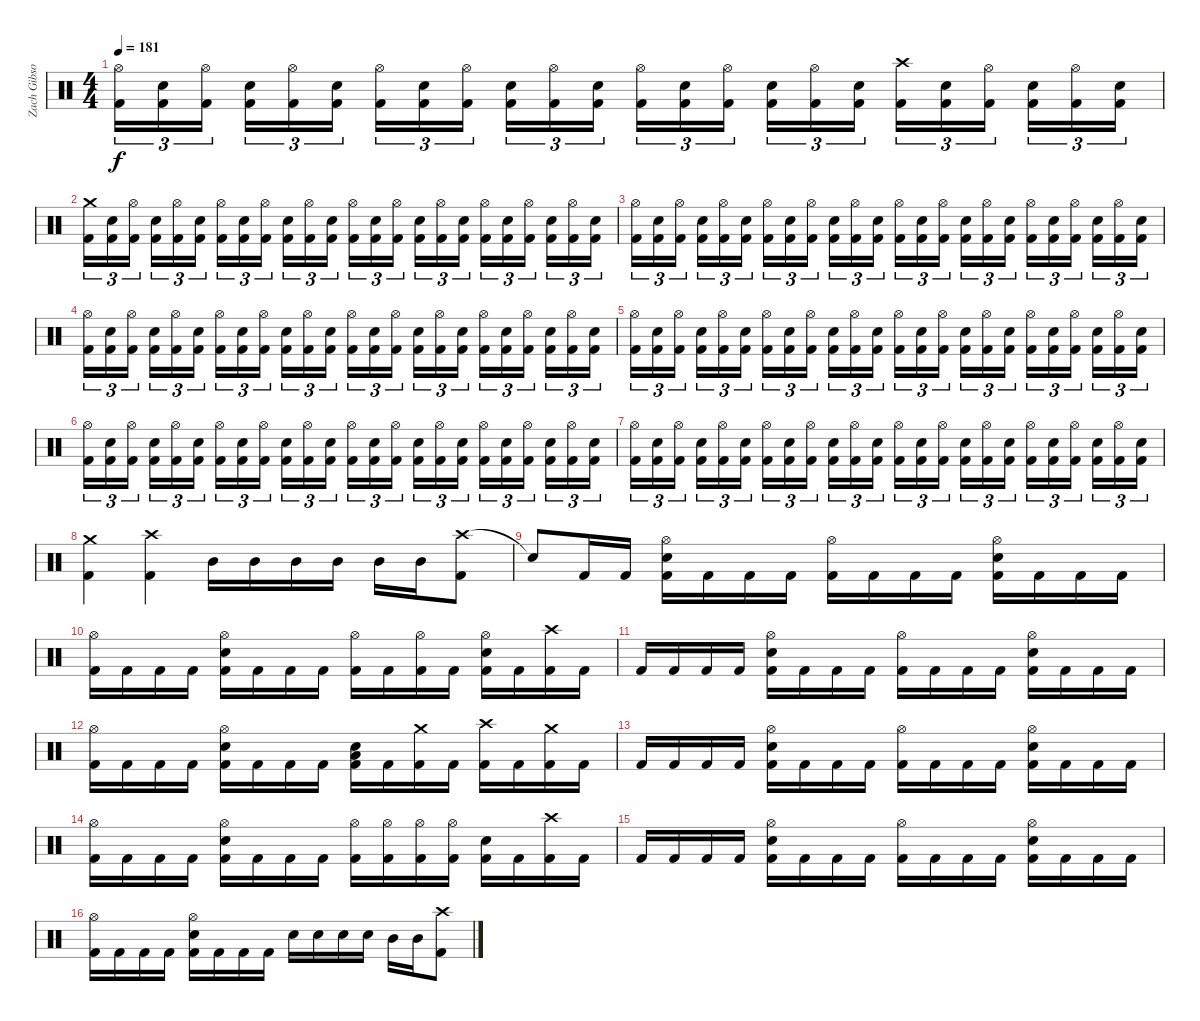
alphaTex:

\track ("Zach Gibson (Drums)" "Zach Gibso") {instrument percussion}
\staff {score}
\articulation defaults
\ts (4 4)
\tempo 181
\clef neutral
\ks c
("Hi-Hat (open)" "Kick (hit) 2").16{tu (3 2) dy f} ("Snare (hit) 2" "Kick (hit) 2").16{tu (3 2)} ("Hi-Hat (open)" "Kick (hit) 2").16{tu (3 2)} ("Snare (hit) 2" "Kick (hit) 2").16{tu (3 2)} ("Hi-Hat (open)" "Kick (hit) 2").16{tu (3 2)} ("Snare (hit) 2" "Kick (hit) 2").16{tu (3 2)} ("Hi-Hat (open)" "Kick (hit) 2").16{tu (3 2)} ("Snare (hit) 2" "Kick (hit) 2").16{tu (3 2)} ("Hi-Hat (open)" "Kick (hit) 2").16{tu (3 2)} ("Snare (hit) 2" "Kick (hit) 2").16{tu (3 2)} ("Hi-Hat (open)" "Kick (hit) 2").16{tu (3 2)} ("Snare (hit) 2" "Kick (hit) 2").16{tu (3 2)} ("Hi-Hat (open)" "Kick (hit) 2").16{tu (3 2)} ("Snare (hit) 2" "Kick (hit) 2").16{tu (3 2)} ("Hi-Hat (open)" "Kick (hit) 2").16{tu (3 2)} ("Snare (hit) 2" "Kick (hit) 2").16{tu (3 2)} ("Hi-Hat (open)" "Kick (hit) 2").16{tu (3 2)} ("Snare (hit) 2" "Kick (hit) 2").16{tu (3 2)} ("Crash high (hit)" "Kick (hit) 2").16{tu (3 2)} ("Snare (hit) 2" "Kick (hit) 2").16{tu (3 2)} ("Hi-Hat (open)" "Kick (hit) 2").16{tu (3 2)} ("Snare (hit) 2" "Kick (hit) 2").16{tu (3 2)} ("Hi-Hat (open)" "Kick (hit) 2").16{tu (3 2)} ("Snare (hit) 2" "Kick (hit) 2").16{tu (3 2)} |
("Crash medium (hit)" "Kick (hit) 2").16{tu (3 2)} ("Snare (hit) 2" "Kick (hit) 2").16{tu (3 2)} ("Hi-Hat (open)" "Kick (hit) 2").16{tu (3 2)} ("Snare (hit) 2" "Kick (hit) 2").16{tu (3 2)} ("Hi-Hat (open)" "Kick (hit) 2").16{tu (3 2)} ("Snare (hit) 2" "Kick (hit) 2").16{tu (3 2)} ("Hi-Hat (open)" "Kick (hit) 2").16{tu (3 2)} ("Snare (hit) 2" "Kick (hit) 2").16{tu (3 2)} ("Hi-Hat (open)" "Kick (hit) 2").16{tu (3 2)} ("Snare (hit) 2" "Kick (hit) 2").16{tu (3 2)} ("Hi-Hat (open)" "Kick (hit) 2").16{tu (3 2)} ("Snare (hit) 2" "Kick (hit) 2").16{tu (3 2)} ("Hi-Hat (open)" "Kick (hit) 2").16{tu (3 2)} ("Snare (hit) 2" "Kick (hit) 2").16{tu (3 2)} ("Hi-Hat (open)" "Kick (hit) 2").16{tu (3 2)} ("Snare (hit) 2" "Kick (hit) 2").16{tu (3 2)} ("Hi-Hat (open)" "Kick (hit) 2").16{tu (3 2)} ("Snare (hit) 2" "Kick (hit) 2").16{tu (3 2)} ("Hi-Hat (open)" "Kick (hit) 2").16{tu (3 2)} ("Snare (hit) 2" "Kick (hit) 2").16{tu (3 2)} ("Hi-Hat (open)" "Kick (hit) 2").16{tu (3 2)} ("Snare (hit) 2" "Kick (hit) 2").16{tu (3 2)} ("Hi-Hat (open)" "Kick (hit) 2").16{tu (3 2)} ("Snare (hit) 2" "Kick (hit) 2").16{tu (3 2)} |
("Hi-Hat (open)" "Kick (hit) 2").16{tu (3 2)} ("Snare (hit) 2" "Kick (hit) 2").16{tu (3 2)} ("Hi-Hat (open)" "Kick (hit) 2").16{tu (3 2)} ("Snare (hit) 2" "Kick (hit) 2").16{tu (3 2)} ("Hi-Hat (open)" "Kick (hit) 2").16{tu (3 2)} ("Snare (hit) 2" "Kick (hit) 2").16{tu (3 2)} ("Hi-Hat (open)" "Kick (hit) 2").16{tu (3 2)} ("Snare (hit) 2" "Kick (hit) 2").16{tu (3 2)} ("Hi-Hat (open)" "Kick (hit) 2").16{tu (3 2)} ("Snare (hit) 2" "Kick (hit) 2").16{tu (3 2)} ("Hi-Hat (open)" "Kick (hit) 2").16{tu (3 2)} ("Snare (hit) 2" "Kick (hit) 2").16{tu (3 2)} ("Hi-Hat (open)" "Kick (hit) 2").16{tu (3 2)} ("Snare (hit) 2" "Kick (hit) 2").16{tu (3 2)} ("Hi-Hat (open)" "Kick (hit) 2").16{tu (3 2)} ("Snare (hit) 2" "Kick (hit) 2").16{tu (3 2)} ("Hi-Hat (open)" "Kick (hit) 2").16{tu (3 2)} ("Snare (hit) 2" "Kick (hit) 2").16{tu (3 2)} ("Hi-Hat (open)" "Kick (hit) 2").16{tu (3 2)} ("Snare (hit) 2" "Kick (hit) 2").16{tu (3 2)} ("Hi-Hat (open)" "Kick (hit) 2").16{tu (3 2)} ("Snare (hit) 2" "Kick (hit) 2").16{tu (3 2)} ("Hi-Hat (open)" "Kick (hit) 2").16{tu (3 2)} ("Snare (hit) 2" "Kick (hit) 2").16{tu (3 2)} |
("Hi-Hat (open)" "Kick (hit) 2").16{tu (3 2)} ("Snare (hit) 2" "Kick (hit) 2").16{tu (3 2)} ("Hi-Hat (open)" "Kick (hit) 2").16{tu (3 2)} ("Snare (hit) 2" "Kick (hit) 2").16{tu (3 2)} ("Hi-Hat (open)" "Kick (hit) 2").16{tu (3 2)} ("Snare (hit) 2" "Kick (hit) 2").16{tu (3 2)} ("Hi-Hat (open)" "Kick (hit) 2").16{tu (3 2)} ("Snare (hit) 2" "Kick (hit) 2").16{tu (3 2)} ("Hi-Hat (open)" "Kick (hit) 2").16{tu (3 2)} ("Snare (hit) 2" "Kick (hit) 2").16{tu (3 2)} ("Hi-Hat (open)" "Kick (hit) 2").16{tu (3 2)} ("Snare (hit) 2" "Kick (hit) 2").16{tu (3 2)} ("Hi-Hat (open)" "Kick (hit) 2").16{tu (3 2)} ("Snare (hit) 2" "Kick (hit) 2").16{tu (3 2)} ("Hi-Hat (open)" "Kick (hit) 2").16{tu (3 2)} ("Snare (hit) 2" "Kick (hit) 2").16{tu (3 2)} ("Hi-Hat (open)" "Kick (hit) 2").16{tu (3 2)} ("Snare (hit) 2" "Kick (hit) 2").16{tu (3 2)} ("Hi-Hat (open)" "Kick (hit) 2").16{tu (3 2)} ("Snare (hit) 2" "Kick (hit) 2").16{tu (3 2)} ("Hi-Hat (open)" "Kick (hit) 2").16{tu (3 2)} ("Snare (hit) 2" "Kick (hit) 2").16{tu (3 2)} ("Hi-Hat (open)" "Kick (hit) 2").16{tu (3 2)} ("Snare (hit) 2" "Kick (hit) 2").16{tu (3 2)} |
("Hi-Hat (open)" "Kick (hit) 2").16{tu (3 2)} ("Snare (hit) 2" "Kick (hit) 2").16{tu (3 2)} ("Hi-Hat (open)" "Kick (hit) 2").16{tu (3 2)} ("Snare (hit) 2" "Kick (hit) 2").16{tu (3 2)} ("Hi-Hat (open)" "Kick (hit) 2").16{tu (3 2)} ("Snare (hit) 2" "Kick (hit) 2").16{tu (3 2)} ("Hi-Hat (open)" "Kick (hit) 2").16{tu (3 2)} ("Snare (hit) 2" "Kick (hit) 2").16{tu (3 2)} ("Hi-Hat (open)" "Kick (hit) 2").16{tu (3 2)} ("Snare (hit) 2" "Kick (hit) 2").16{tu (3 2)} ("Hi-Hat (open)" "Kick (hit) 2").16{tu (3 2)} ("Snare (hit) 2" "Kick (hit) 2").16{tu (3 2)} ("Hi-Hat (open)" "Kick (hit) 2").16{tu (3 2)} ("Snare (hit) 2" "Kick (hit) 2").16{tu (3 2)} ("Hi-Hat (open)" "Kick (hit) 2").16{tu (3 2)} ("Snare (hit) 2" "Kick (hit) 2").16{tu (3 2)} ("Hi-Hat (open)" "Kick (hit) 2").16{tu (3 2)} ("Snare (hit) 2" "Kick (hit) 2").16{tu (3 2)} ("Hi-Hat (open)" "Kick (hit) 2").16{tu (3 2)} ("Snare (hit) 2" "Kick (hit) 2").16{tu (3 2)} ("Hi-Hat (open)" "Kick (hit) 2").16{tu (3 2)} ("Snare (hit) 2" "Kick (hit) 2").16{tu (3 2)} ("Hi-Hat (open)" "Kick (hit) 2").16{tu (3 2)} ("Snare (hit) 2" "Kick (hit) 2").16{tu (3 2)} |
("Hi-Hat (open)" "Kick (hit) 2").16{tu (3 2)} ("Snare (hit) 2" "Kick (hit) 2").16{tu (3 2)} ("Hi-Hat (open)" "Kick (hit) 2").16{tu (3 2)} ("Snare (hit) 2" "Kick (hit) 2").16{tu (3 2)} ("Hi-Hat (open)" "Kick (hit) 2").16{tu (3 2)} ("Snare (hit) 2" "Kick (hit) 2").16{tu (3 2)} ("Hi-Hat (open)" "Kick (hit) 2").16{tu (3 2)} ("Snare (hit) 2" "Kick (hit) 2").16{tu (3 2)} ("Hi-Hat (open)" "Kick (hit) 2").16{tu (3 2)} ("Snare (hit) 2" "Kick (hit) 2").16{tu (3 2)} ("Hi-Hat (open)" "Kick (hit) 2").16{tu (3 2)} ("Snare (hit) 2" "Kick (hit) 2").16{tu (3 2)} ("Hi-Hat (open)" "Kick (hit) 2").16{tu (3 2)} ("Snare (hit) 2" "Kick (hit) 2").16{tu (3 2)} ("Hi-Hat (open)" "Kick (hit) 2").16{tu (3 2)} ("Snare (hit) 2" "Kick (hit) 2").16{tu (3 2)} ("Hi-Hat (open)" "Kick (hit) 2").16{tu (3 2)} ("Snare (hit) 2" "Kick (hit) 2").16{tu (3 2)} ("Hi-Hat (open)" "Kick (hit) 2").16{tu (3 2)} ("Snare (hit) 2" "Kick (hit) 2").16{tu (3 2)} ("Hi-Hat (open)" "Kick (hit) 2").16{tu (3 2)} ("Snare (hit) 2" "Kick (hit) 2").16{tu (3 2)} ("Hi-Hat (open)" "Kick (hit) 2").16{tu (3 2)} ("Snare (hit) 2" "Kick (hit) 2").16{tu (3 2)} |
("Hi-Hat (open)" "Kick (hit) 2").16{tu (3 2)} ("Snare (hit) 2" "Kick (hit) 2").16{tu (3 2)} ("Hi-Hat (open)" "Kick (hit) 2").16{tu (3 2)} ("Snare (hit) 2" "Kick (hit) 2").16{tu (3 2)} ("Hi-Hat (open)" "Kick (hit) 2").16{tu (3 2)} ("Snare (hit) 2" "Kick (hit) 2").16{tu (3 2)} ("Hi-Hat (open)" "Kick (hit) 2").16{tu (3 2)} ("Snare (hit) 2" "Kick (hit) 2").16{tu (3 2)} ("Hi-Hat (open)" "Kick (hit) 2").16{tu (3 2)} ("Snare (hit) 2" "Kick (hit) 2").16{tu (3 2)} ("Hi-Hat (open)" "Kick (hit) 2").16{tu (3 2)} ("Snare (hit) 2" "Kick (hit) 2").16{tu (3 2)} ("Hi-Hat (open)" "Kick (hit) 2").16{tu (3 2)} ("Snare (hit) 2" "Kick (hit) 2").16{tu (3 2)} ("Hi-Hat (open)" "Kick (hit) 2").16{tu (3 2)} ("Snare (hit) 2" "Kick (hit) 2").16{tu (3 2)} ("Hi-Hat (open)" "Kick (hit) 2").16{tu (3 2)} ("Snare (hit) 2" "Kick (hit) 2").16{tu (3 2)} ("Hi-Hat (open)" "Kick (hit) 2").16{tu (3 2)} ("Snare (hit) 2" "Kick (hit) 2").16{tu (3 2)} ("Hi-Hat (open)" "Kick (hit) 2").16{tu (3 2)} ("Snare (hit) 2" "Kick (hit) 2").16{tu (3 2)} ("Hi-Hat (open)" "Kick (hit) 2").16{tu (3 2)} ("Snare (hit) 2" "Kick (hit) 2").16{tu (3 2)} |
("Crash medium (hit)" "Kick (hit) 2").4 ("Crash high (hit)" "Kick (hit) 2").4 "Mid Tom (hit)".16 "Mid Tom (hit)".16 "Mid Tom (hit)".16 "Mid Tom (hit)".16 "Mid Tom (hit)".16 "Mid Tom (hit)".16 ("Crash high (hit)" "Kick (hit) 2").8 |
"Snare (hit)"{t}.8 "Kick (hit) 2".16 "Kick (hit) 2".16 ("Hi-Hat (open)" "Snare (hit) 2" "Kick (hit) 2").16 "Kick (hit) 2".16 "Kick (hit) 2".16 "Kick (hit) 2".16 ("Hi-Hat (open)" "Kick (hit) 2").16 "Kick (hit) 2".16 "Kick (hit) 2".16 "Kick (hit) 2".16 ("Hi-Hat (open)" "Snare (hit) 2" "Kick (hit) 2").16 "Kick (hit) 2".16 "Kick (hit) 2".16 "Kick (hit) 2".16 |
("Hi-Hat (open)" "Kick (hit) 2").16 "Kick (hit) 2".16 "Kick (hit) 2".16 "Kick (hit) 2".16 ("Hi-Hat (open)" "Snare (hit) 2" "Kick (hit) 2").16 "Kick (hit) 2".16 "Kick (hit) 2".16 "Kick (hit) 2".16 ("Hi-Hat (open)" "Kick (hit) 2").16 "Kick (hit) 2".16 ("Hi-Hat (open)" "Kick (hit) 2").16 "Kick (hit) 2".16 ("Hi-Hat (open)" "Snare (hit) 2" "Kick (hit) 2").16 "Kick (hit) 2".16 ("Crash high (hit)" "Kick (hit) 2").16 "Kick (hit) 2".16 |
"Kick (hit) 2".16 "Kick (hit) 2".16 "Kick (hit) 2".16 "Kick (hit) 2".16 ("Hi-Hat (open)" "Snare (hit) 2" "Kick (hit) 2").16 "Kick (hit) 2".16 "Kick (hit) 2".16 "Kick (hit) 2".16 ("Hi-Hat (open)" "Kick (hit) 2").16 "Kick (hit) 2".16 "Kick (hit) 2".16 "Kick (hit) 2".16 ("Hi-Hat (open)" "Snare (hit) 2" "Kick (hit) 2").16 "Kick (hit) 2".16 "Kick (hit) 2".16 "Kick (hit) 2".16 |
("Hi-Hat (open)" "Kick (hit) 2").16 "Kick (hit) 2".16 "Kick (hit) 2".16 "Kick (hit) 2".16 ("Hi-Hat (open)" "Snare (hit) 2" "Kick (hit) 2").16 "Kick (hit) 2".16 "Kick (hit) 2".16 "Kick (hit) 2".16 ("Low Floor Tom (hit)" "Snare (hit) 2" "Kick (hit) 2").16 "Kick (hit) 2".16 ("Crash medium (hit)" "Kick (hit) 2").16 "Kick (hit) 2".16 ("Crash high (hit)" "Kick (hit) 2").16 "Kick (hit) 2".16 ("Crash medium (hit)" "Kick (hit) 2").16 "Kick (hit) 2".16 |
"Kick (hit) 2".16 "Kick (hit) 2".16 "Kick (hit) 2".16 "Kick (hit) 2".16 ("Hi-Hat (open)" "Snare (hit) 2" "Kick (hit) 2").16 "Kick (hit) 2".16 "Kick (hit) 2".16 "Kick (hit) 2".16 ("Hi-Hat (open)" "Kick (hit) 2").16 "Kick (hit) 2".16 "Kick (hit) 2".16 "Kick (hit) 2".16 ("Hi-Hat (open)" "Snare (hit) 2" "Kick (hit) 2").16 "Kick (hit) 2".16 "Kick (hit) 2".16 "Kick (hit) 2".16 |
("Hi-Hat (open)" "Kick (hit) 2").16 "Kick (hit) 2".16 "Kick (hit) 2".16 "Kick (hit) 2".16 ("Hi-Hat (open)" "Snare (hit) 2" "Kick (hit) 2").16 "Kick (hit) 2".16 "Kick (hit) 2".16 "Kick (hit) 2".16 ("Hi-Hat (open)" "Kick (hit) 2").16 ("Hi-Hat (open)" "Kick (hit) 2").16 ("Hi-Hat (open)" "Kick (hit) 2").16 ("Hi-Hat (open)" "Kick (hit) 2").16 ("Snare (hit) 2" "Kick (hit) 2").16 "Kick (hit) 2".16 ("Crash high (hit)" "Kick (hit) 2").16 "Kick (hit) 2".16 |
"Kick (hit) 2".16 "Kick (hit) 2".16 "Kick (hit) 2".16 "Kick (hit) 2".16 ("Hi-Hat (open)" "Snare (hit) 2" "Kick (hit) 2").16 "Kick (hit) 2".16 "Kick (hit) 2".16 "Kick (hit) 2".16 ("Hi-Hat (open)" "Kick (hit) 2").16 "Kick (hit) 2".16 "Kick (hit) 2".16 "Kick (hit) 2".16 ("Hi-Hat (open)" "Snare (hit) 2" "Kick (hit) 2").16 "Kick (hit) 2".16 "Kick (hit) 2".16 "Kick (hit) 2".16 |
("Hi-Hat (open)" "Kick (hit) 2").16 "Kick (hit) 2".16 "Kick (hit) 2".16 "Kick (hit) 2".16 ("Hi-Hat (open)" "Snare (hit) 2" "Kick (hit) 2").16 "Kick (hit) 2".16 "Kick (hit) 2".16 "Kick (hit) 2".16 "Snare (hit) 2".16 "Snare (hit) 2".16 "Snare (hit) 2".16 "Snare (hit) 2".16 "Mid Tom (hit)".16 "Mid Tom (hit)".16 ("Crash high (hit)" "Kick (hit) 2").8
